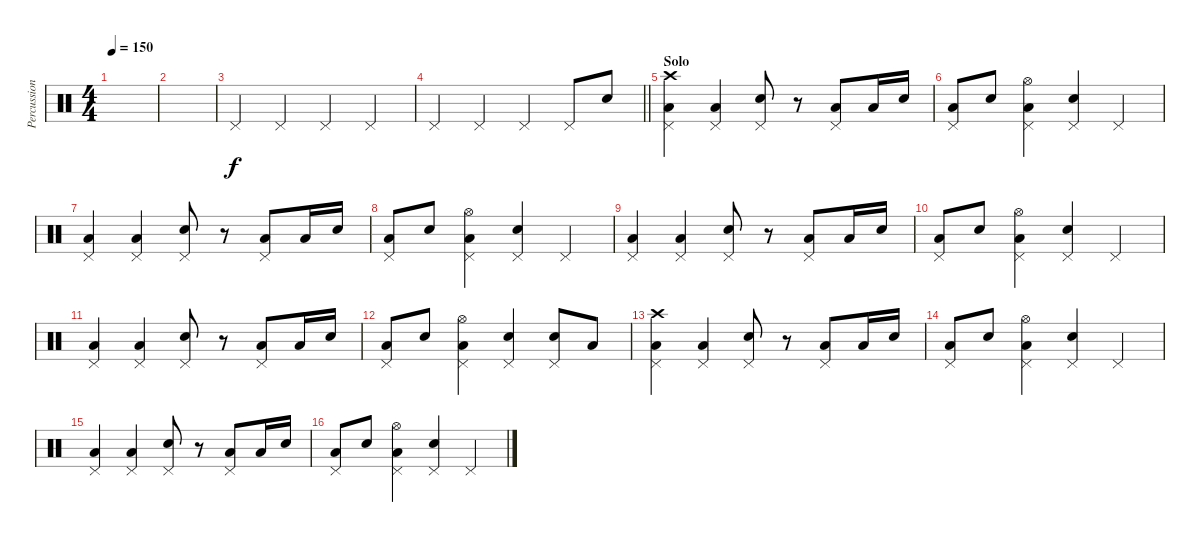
\track ("Percussions" "Percussion") {instrument percussion}
\staff {score}
\articulation defaults
\ts (4 4)
\tempo 150
\clef neutral
\ks c
|
|
"Pedal Hi-Hat (hit)".4{volume 16} "Pedal Hi-Hat (hit)".4 "Pedal Hi-Hat (hit)".4 "Pedal Hi-Hat (hit)".4 |
\barLineRight lightlight "Pedal Hi-Hat (hit)".4 "Pedal Hi-Hat (hit)".4 "Pedal Hi-Hat (hit)".4 "Pedal Hi-Hat (hit)".8 "Snare (hit) 2".8
|
\section ("" "Solo")
("Low Floor Tom (hit)" "Pedal Hi-Hat (hit)" "Crash high (hit)").4 ("Low Floor Tom (hit)" "Pedal Hi-Hat (hit)").4 ("Pedal Hi-Hat (hit)" "Electric Snare (hit)").8 r.8 ("Pedal Hi-Hat (hit)" "Low Floor Tom (hit)").8 "Low Floor Tom (hit)".16 "Electric Snare (hit)".16 |
("Low Floor Tom (hit)" "Pedal Hi-Hat (hit)").8 "Electric Snare (hit)".8 ("Low Floor Tom (hit)" "Pedal Hi-Hat (hit)" "Hi-Hat (open)").4 ("Electric Snare (hit)" "Pedal Hi-Hat (hit)").4 "Pedal Hi-Hat (hit)".4 |
("Low Floor Tom (hit)" "Pedal Hi-Hat (hit)").4 ("Low Floor Tom (hit)" "Pedal Hi-Hat (hit)").4 ("Pedal Hi-Hat (hit)" "Electric Snare (hit)").8 r.8 ("Pedal Hi-Hat (hit)" "Low Floor Tom (hit)").8 "Low Floor Tom (hit)".16 "Electric Snare (hit)".16 |
("Low Floor Tom (hit)" "Pedal Hi-Hat (hit)").8 "Electric Snare (hit)".8 ("Low Floor Tom (hit)" "Pedal Hi-Hat (hit)" "Hi-Hat (open)").4 ("Electric Snare (hit)" "Pedal Hi-Hat (hit)").4 "Pedal Hi-Hat (hit)".4 |
("Low Floor Tom (hit)" "Pedal Hi-Hat (hit)").4 ("Low Floor Tom (hit)" "Pedal Hi-Hat (hit)").4 ("Pedal Hi-Hat (hit)" "Electric Snare (hit)").8 r.8 ("Pedal Hi-Hat (hit)" "Low Floor Tom (hit)").8 "Low Floor Tom (hit)".16 "Electric Snare (hit)".16 |
("Low Floor Tom (hit)" "Pedal Hi-Hat (hit)").8 "Electric Snare (hit)".8 ("Low Floor Tom (hit)" "Pedal Hi-Hat (hit)" "Hi-Hat (open)").4 ("Electric Snare (hit)" "Pedal Hi-Hat (hit)").4 "Pedal Hi-Hat (hit)".4 |
("Low Floor Tom (hit)" "Pedal Hi-Hat (hit)").4 ("Low Floor Tom (hit)" "Pedal Hi-Hat (hit)").4 ("Pedal Hi-Hat (hit)" "Electric Snare (hit)").8 r.8 ("Pedal Hi-Hat (hit)" "Low Floor Tom (hit)").8 "Low Floor Tom (hit)".16 "Electric Snare (hit)".16 |
("Low Floor Tom (hit)" "Pedal Hi-Hat (hit)").8 "Electric Snare (hit)".8 ("Low Floor Tom (hit)" "Pedal Hi-Hat (hit)" "Hi-Hat (open)").4 ("Electric Snare (hit)" "Pedal Hi-Hat (hit)").4 ("Pedal Hi-Hat (hit)" "Electric Snare (hit)").8 "Low Floor Tom (hit)".8 |
("Low Floor Tom (hit)" "Pedal Hi-Hat (hit)" "Crash high (hit)").4 ("Low Floor Tom (hit)" "Pedal Hi-Hat (hit)").4 ("Pedal Hi-Hat (hit)" "Electric Snare (hit)").8 r.8 ("Pedal Hi-Hat (hit)" "Low Floor Tom (hit)").8 "Low Floor Tom (hit)".16 "Electric Snare (hit)".16 |
("Low Floor Tom (hit)" "Pedal Hi-Hat (hit)").8 "Electric Snare (hit)".8 ("Low Floor Tom (hit)" "Pedal Hi-Hat (hit)" "Hi-Hat (open)").4 ("Electric Snare (hit)" "Pedal Hi-Hat (hit)").4 "Pedal Hi-Hat (hit)".4 |
("Low Floor Tom (hit)" "Pedal Hi-Hat (hit)").4 ("Low Floor Tom (hit)" "Pedal Hi-Hat (hit)").4 ("Pedal Hi-Hat (hit)" "Electric Snare (hit)").8 r.8 ("Pedal Hi-Hat (hit)" "Low Floor Tom (hit)").8 "Low Floor Tom (hit)".16 "Electric Snare (hit)".16 |
("Low Floor Tom (hit)" "Pedal Hi-Hat (hit)").8 "Electric Snare (hit)".8 ("Low Floor Tom (hit)" "Pedal Hi-Hat (hit)" "Hi-Hat (open)").4 ("Electric Snare (hit)" "Pedal Hi-Hat (hit)").4 "Pedal Hi-Hat (hit)".4
